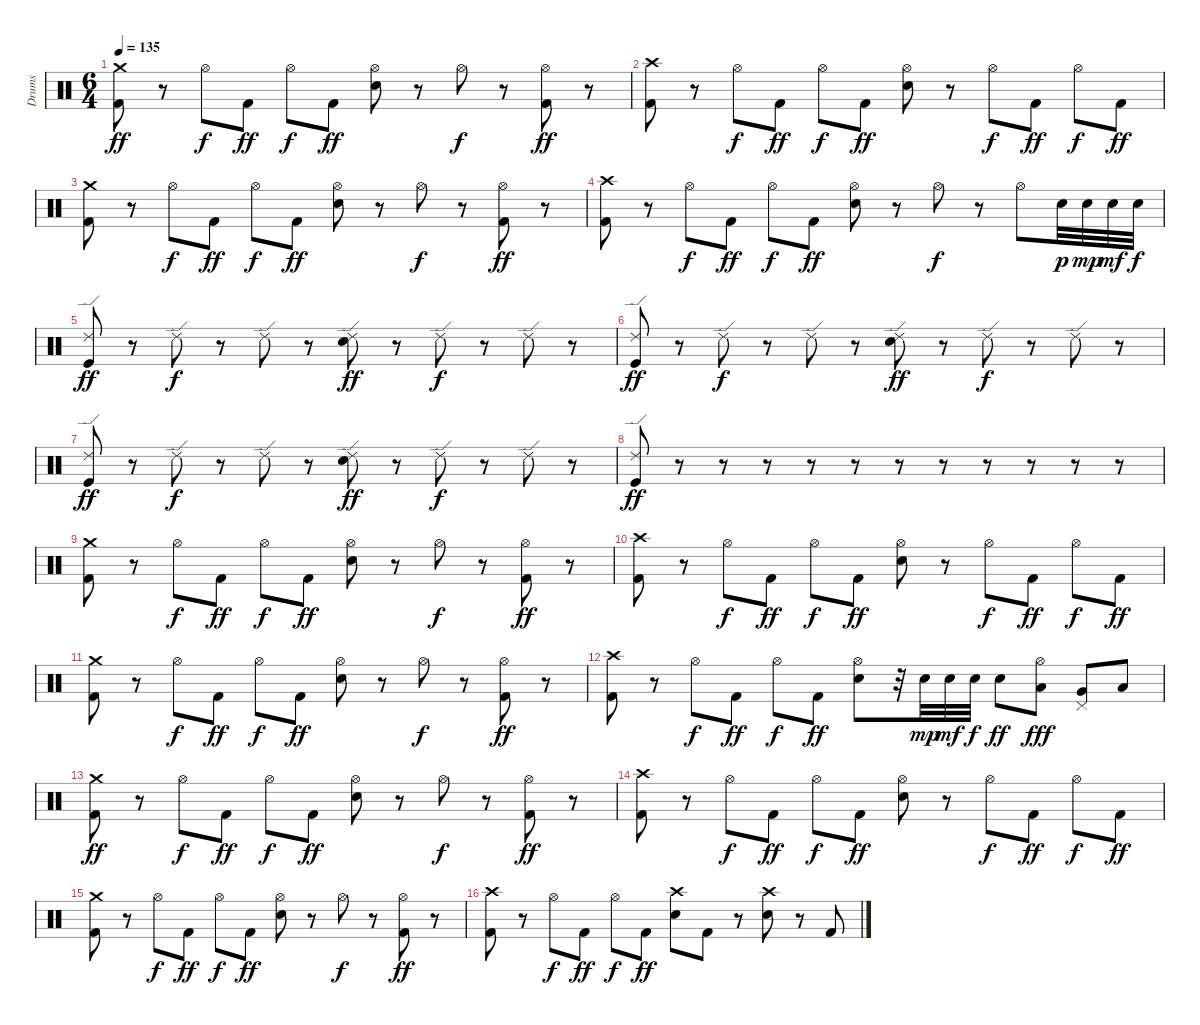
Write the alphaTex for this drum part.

\track ("Drums" "Drums") {instrument percussion}
\staff {score}
\articulation defaults
\ts (6 4)
\tempo 135
\clef neutral
\ks c
("Crash medium (hit)" "Kick (hit) 2").8{dy ff} r.8 "Hi-Hat (open)".8{dy f} "Kick (hit) 2".8{dy ff} "Hi-Hat (open)".8{dy f} "Kick (hit) 2".8{dy ff} ("Hi-Hat (open)" "Electric Snare (hit)").8 r.8 "Hi-Hat (open)".8{dy f} r.8 ("Hi-Hat (open)" "Kick (hit) 2").8{dy ff} r.8 |
("Crash high (hit)" "Kick (hit) 2").8 r.8 "Hi-Hat (open)".8{dy f} "Kick (hit) 2".8{dy ff} "Hi-Hat (open)".8{dy f} "Kick (hit) 2".8{dy ff} ("Hi-Hat (open)" "Electric Snare (hit)").8 r.8 "Hi-Hat (open)".8{dy f} "Kick (hit) 2".8{dy ff} "Hi-Hat (open)".8{dy f} "Kick (hit) 2".8{dy ff} |
("Crash medium (hit)" "Kick (hit) 2").8 r.8 "Hi-Hat (open)".8{dy f} "Kick (hit) 2".8{dy ff} "Hi-Hat (open)".8{dy f} "Kick (hit) 2".8{dy ff} ("Hi-Hat (open)" "Electric Snare (hit)").8 r.8 "Hi-Hat (open)".8{dy f} r.8 ("Hi-Hat (open)" "Kick (hit) 2").8{dy ff} r.8 |
("Crash high (hit)" "Kick (hit) 2").8 r.8 "Hi-Hat (open)".8{dy f} "Kick (hit) 2".8{dy ff} "Hi-Hat (open)".8{dy f} "Kick (hit) 2".8{dy ff} ("Hi-Hat (open)" "Electric Snare (hit)").8 r.8 "Hi-Hat (open)".8{dy f} r.8 "Hi-Hat (open)".8 "Electric Snare (hit)".32{dy p} "Electric Snare (hit)".32{dy mp} "Electric Snare (hit)".32{dy mf} "Electric Snare (hit)".32{dy f} |
("Ride (edge) 2" "Kick (hit)").8{dy ff volume 12} r.8 "Ride (edge) 2".8{dy f} r.8 "Ride (edge) 2".8 r.8 ("Ride (edge) 2" "Electric Snare (hit)").8{dy ff} r.8 "Ride (edge) 2".8{dy f} r.8 "Ride (edge) 2".8 r.8 |
("Ride (edge) 2" "Kick (hit)").8{dy ff} r.8 "Ride (edge) 2".8{dy f} r.8 "Ride (edge) 2".8 r.8 ("Ride (edge) 2" "Electric Snare (hit)").8{dy ff} r.8 "Ride (edge) 2".8{dy f} r.8 "Ride (edge) 2".8 r.8 |
("Ride (edge) 2" "Kick (hit)").8{dy ff} r.8 "Ride (edge) 2".8{dy f} r.8 "Ride (edge) 2".8 r.8 ("Ride (edge) 2" "Electric Snare (hit)").8{dy ff} r.8 "Ride (edge) 2".8{dy f} r.8 "Ride (edge) 2".8 r.8 |
("Ride (edge) 2" "Kick (hit)").8{dy ff} r.8 r.8 r.8 r.8 r.8 r.8 r.8 r.8 r.8 r.8 r.8 |
("Crash medium (hit)" "Kick (hit) 2").8{volume 16} r.8 "Hi-Hat (open)".8{dy f} "Kick (hit) 2".8{dy ff} "Hi-Hat (open)".8{dy f} "Kick (hit) 2".8{dy ff} ("Hi-Hat (open)" "Electric Snare (hit)").8 r.8 "Hi-Hat (open)".8{dy f} r.8 ("Hi-Hat (open)" "Kick (hit) 2").8{dy ff} r.8 |
("Crash high (hit)" "Kick (hit) 2").8 r.8 "Hi-Hat (open)".8{dy f} "Kick (hit) 2".8{dy ff} "Hi-Hat (open)".8{dy f} "Kick (hit) 2".8{dy ff} ("Hi-Hat (open)" "Electric Snare (hit)").8 r.8 "Hi-Hat (open)".8{dy f} "Kick (hit) 2".8{dy ff} "Hi-Hat (open)".8{dy f} "Kick (hit) 2".8{dy ff} |
("Crash medium (hit)" "Kick (hit) 2").8 r.8 "Hi-Hat (open)".8{dy f} "Kick (hit) 2".8{dy ff} "Hi-Hat (open)".8{dy f} "Kick (hit) 2".8{dy ff} ("Hi-Hat (open)" "Electric Snare (hit)").8 r.8 "Hi-Hat (open)".8{dy f} r.8 ("Hi-Hat (open)" "Kick (hit) 2").8{dy ff} r.8 |
("Crash high (hit)" "Kick (hit) 2").8 r.8 "Hi-Hat (open)".8{dy f} "Kick (hit) 2".8{dy ff} "Hi-Hat (open)".8{dy f} "Kick (hit) 2".8{dy ff} ("Hi-Hat (open)" "Electric Snare (hit)").8 r.32 "Electric Snare (hit)".32{dy mp} "Electric Snare (hit)".32{dy mf} "Electric Snare (hit)".32{dy f} "Electric Snare (hit)".8{dy ff} ("Hi-Hat (open)" "Low Tom (hit)").8{dy fff} ("Pedal Hi-Hat (hit)" "Very Low Tom (hit)").8 "Low Floor Tom (hit)".8 |
("Crash medium (hit)" "Kick (hit) 2").8{dy ff} r.8 "Hi-Hat (open)".8{dy f} "Kick (hit) 2".8{dy ff} "Hi-Hat (open)".8{dy f} "Kick (hit) 2".8{dy ff} ("Hi-Hat (open)" "Electric Snare (hit)").8 r.8 "Hi-Hat (open)".8{dy f} r.8 ("Hi-Hat (open)" "Kick (hit) 2").8{dy ff} r.8 |
("Crash high (hit)" "Kick (hit) 2").8 r.8 "Hi-Hat (open)".8{dy f} "Kick (hit) 2".8{dy ff} "Hi-Hat (open)".8{dy f} "Kick (hit) 2".8{dy ff} ("Hi-Hat (open)" "Electric Snare (hit)").8 r.8 "Hi-Hat (open)".8{dy f} "Kick (hit) 2".8{dy ff} "Hi-Hat (open)".8{dy f} "Kick (hit) 2".8{dy ff} |
("Crash medium (hit)" "Kick (hit) 2").8 r.8 "Hi-Hat (open)".8{dy f} "Kick (hit) 2".8{dy ff} "Hi-Hat (open)".8{dy f} "Kick (hit) 2".8{dy ff} ("Hi-Hat (open)" "Electric Snare (hit)").8 r.8 "Hi-Hat (open)".8{dy f} r.8 ("Hi-Hat (open)" "Kick (hit) 2").8{dy ff} r.8 |
("Crash high (hit)" "Kick (hit) 2").8 r.8 "Hi-Hat (open)".8{dy f} "Kick (hit) 2".8{dy ff} "Hi-Hat (open)".8{dy f} "Kick (hit) 2".8{dy ff} ("Crash high (hit)" "Electric Snare (hit)").8 "Kick (hit) 2".8 r.8 ("Crash high (hit)" "Electric Snare (hit)").8 r.8 "Kick (hit) 2".8
